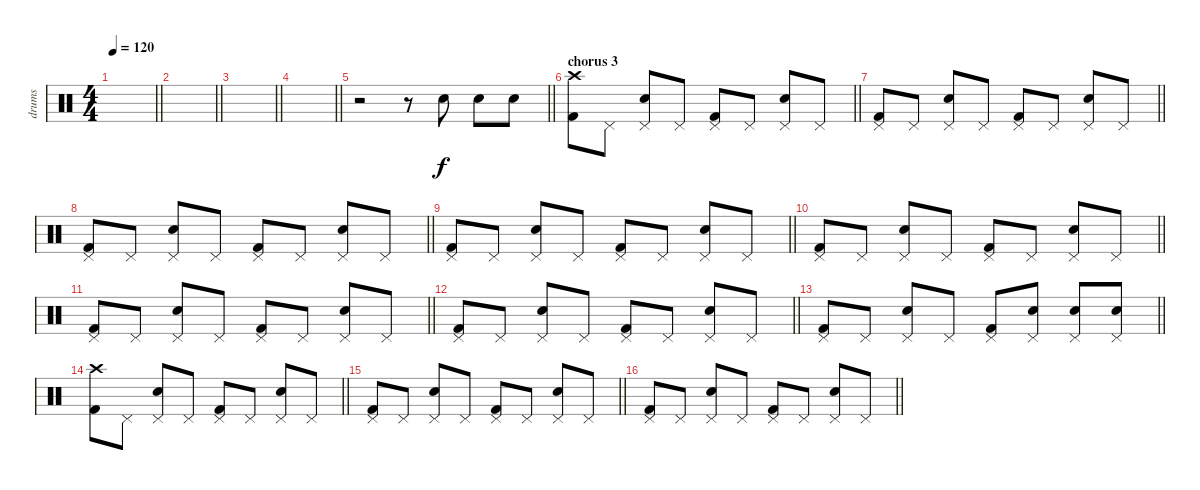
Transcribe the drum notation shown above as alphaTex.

\track ("drums" "drums") {instrument percussion}
\staff {score}
\articulation defaults
\ts (4 4)
\tempo 120
\clef neutral
\barLineRight lightlight
\ks c
|
\barLineRight lightlight
|
\barLineRight lightlight
|
\barLineRight lightlight
|
\barLineRight lightlight
r.2 r.8 "Electric Snare (hit)".8 "Electric Snare (hit)".8 "Electric Snare (hit)".8 |
\section ("" "chorus 3")
\barLineRight lightlight
("Kick (hit) 2" "Crash high (hit)").8 "Pedal Hi-Hat (hit)".8 ("Electric Snare (hit)" "Pedal Hi-Hat (hit)").8 "Pedal Hi-Hat (hit)".8 ("Kick (hit) 2" "Pedal Hi-Hat (hit)").8 "Pedal Hi-Hat (hit)".8 ("Electric Snare (hit)" "Pedal Hi-Hat (hit)").8 "Pedal Hi-Hat (hit)".8 |
\barLineRight lightlight
("Kick (hit) 2" "Pedal Hi-Hat (hit)").8 "Pedal Hi-Hat (hit)".8 ("Electric Snare (hit)" "Pedal Hi-Hat (hit)").8 "Pedal Hi-Hat (hit)".8 ("Kick (hit) 2" "Pedal Hi-Hat (hit)").8 "Pedal Hi-Hat (hit)".8 ("Electric Snare (hit)" "Pedal Hi-Hat (hit)").8 "Pedal Hi-Hat (hit)".8 |
\barLineRight lightlight
("Kick (hit) 2" "Pedal Hi-Hat (hit)").8 "Pedal Hi-Hat (hit)".8 ("Electric Snare (hit)" "Pedal Hi-Hat (hit)").8 "Pedal Hi-Hat (hit)".8 ("Kick (hit) 2" "Pedal Hi-Hat (hit)").8 "Pedal Hi-Hat (hit)".8 ("Electric Snare (hit)" "Pedal Hi-Hat (hit)").8 "Pedal Hi-Hat (hit)".8 |
\barLineRight lightlight
("Kick (hit) 2" "Pedal Hi-Hat (hit)").8 "Pedal Hi-Hat (hit)".8 ("Electric Snare (hit)" "Pedal Hi-Hat (hit)").8 "Pedal Hi-Hat (hit)".8 ("Kick (hit) 2" "Pedal Hi-Hat (hit)").8 "Pedal Hi-Hat (hit)".8 ("Electric Snare (hit)" "Pedal Hi-Hat (hit)").8 "Pedal Hi-Hat (hit)".8 |
\barLineRight lightlight
("Kick (hit) 2" "Pedal Hi-Hat (hit)").8 "Pedal Hi-Hat (hit)".8 ("Electric Snare (hit)" "Pedal Hi-Hat (hit)").8 "Pedal Hi-Hat (hit)".8 ("Kick (hit) 2" "Pedal Hi-Hat (hit)").8 "Pedal Hi-Hat (hit)".8 ("Electric Snare (hit)" "Pedal Hi-Hat (hit)").8 "Pedal Hi-Hat (hit)".8 |
\barLineRight lightlight
("Kick (hit) 2" "Pedal Hi-Hat (hit)").8 "Pedal Hi-Hat (hit)".8 ("Electric Snare (hit)" "Pedal Hi-Hat (hit)").8 "Pedal Hi-Hat (hit)".8 ("Kick (hit) 2" "Pedal Hi-Hat (hit)").8 "Pedal Hi-Hat (hit)".8 ("Electric Snare (hit)" "Pedal Hi-Hat (hit)").8 "Pedal Hi-Hat (hit)".8 |
\barLineRight lightlight
("Kick (hit) 2" "Pedal Hi-Hat (hit)").8 "Pedal Hi-Hat (hit)".8 ("Electric Snare (hit)" "Pedal Hi-Hat (hit)").8 "Pedal Hi-Hat (hit)".8 ("Kick (hit) 2" "Pedal Hi-Hat (hit)").8 "Pedal Hi-Hat (hit)".8 ("Electric Snare (hit)" "Pedal Hi-Hat (hit)").8 "Pedal Hi-Hat (hit)".8 |
\barLineRight lightlight
("Kick (hit) 2" "Pedal Hi-Hat (hit)").8 "Pedal Hi-Hat (hit)".8 ("Electric Snare (hit)" "Pedal Hi-Hat (hit)").8 "Pedal Hi-Hat (hit)".8 ("Kick (hit) 2" "Pedal Hi-Hat (hit)").8 ("Electric Snare (hit)" "Pedal Hi-Hat (hit)").8 ("Electric Snare (hit)" "Pedal Hi-Hat (hit)").8 ("Electric Snare (hit)" "Pedal Hi-Hat (hit)").8 |
\barLineRight lightlight
("Kick (hit) 2" "Crash high (hit)").8 "Pedal Hi-Hat (hit)".8 ("Electric Snare (hit)" "Pedal Hi-Hat (hit)").8 "Pedal Hi-Hat (hit)".8 ("Kick (hit) 2" "Pedal Hi-Hat (hit)").8 "Pedal Hi-Hat (hit)".8 ("Electric Snare (hit)" "Pedal Hi-Hat (hit)").8 "Pedal Hi-Hat (hit)".8 |
\barLineRight lightlight
("Kick (hit) 2" "Pedal Hi-Hat (hit)").8 "Pedal Hi-Hat (hit)".8 ("Electric Snare (hit)" "Pedal Hi-Hat (hit)").8 "Pedal Hi-Hat (hit)".8 ("Kick (hit) 2" "Pedal Hi-Hat (hit)").8 "Pedal Hi-Hat (hit)".8 ("Electric Snare (hit)" "Pedal Hi-Hat (hit)").8 "Pedal Hi-Hat (hit)".8 |
\barLineRight lightlight
("Kick (hit) 2" "Pedal Hi-Hat (hit)").8 "Pedal Hi-Hat (hit)".8 ("Electric Snare (hit)" "Pedal Hi-Hat (hit)").8 "Pedal Hi-Hat (hit)".8 ("Kick (hit) 2" "Pedal Hi-Hat (hit)").8 "Pedal Hi-Hat (hit)".8 ("Electric Snare (hit)" "Pedal Hi-Hat (hit)").8 "Pedal Hi-Hat (hit)".8
